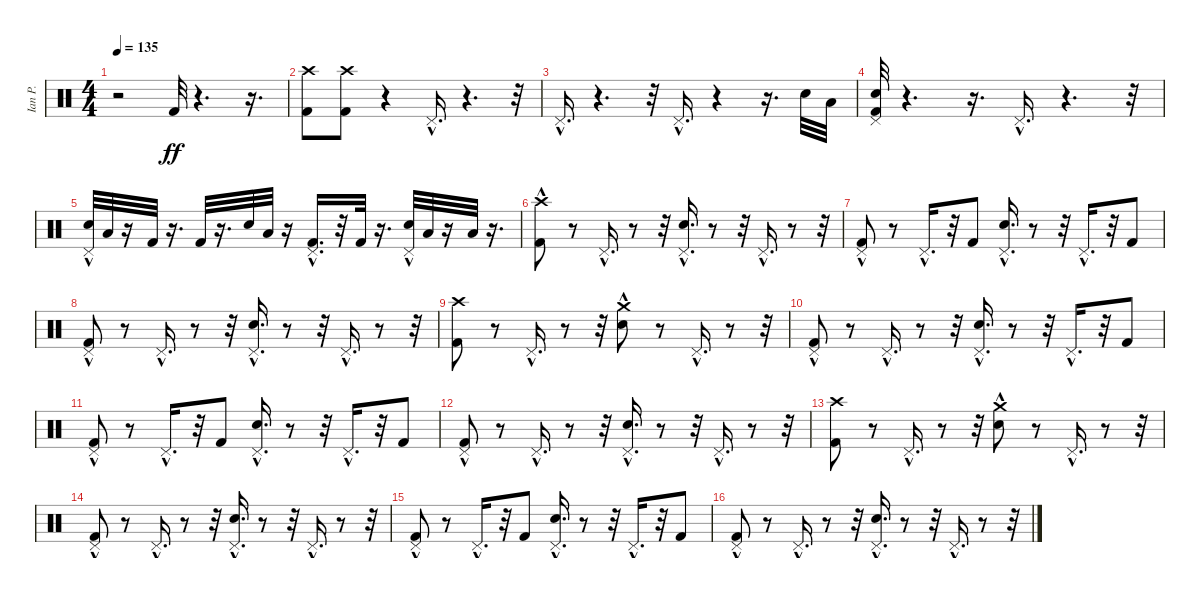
\track ("Ian P." "Ian P.") {instrument percussion}
\staff {score}
\articulation defaults
\ts (4 4)
\tempo 135
\clef neutral
\ks c
r.2{dy ff} "Kick (hit) 2".32 r.4{d} r.16{d} |
("Crash high (hit)" "Kick (hit) 2").8 ("Crash high (hit)" "Kick (hit) 2").8 r.4 "Pedal Hi-Hat (hit)"{hac}.16{d} r.4{d} r.32 |
"Pedal Hi-Hat (hit)"{hac}.16{d} r.4{d} r.32 "Pedal Hi-Hat (hit)"{hac}.16{d} r.4 r.16{d} "Snare (hit) 2".32 "Low Floor Tom (hit)".32 |
("Snare (hit) 2" "Pedal Hi-Hat (hit)" "Kick (hit) 2").32 r.4{d} r.16{d} "Pedal Hi-Hat (hit)"{hac}.16{d} r.4{d} r.32 |
("Snare (hit) 2" "Pedal Hi-Hat (hit)"{hac}).32 "Low Floor Tom (hit)".32 r.16 "Kick (hit) 2".32 r.16{d} "Kick (hit) 2".32 r.16{d} "Snare (hit) 2".32 "Low Floor Tom (hit)".32 r.16 ("Kick (hit) 2" "Pedal Hi-Hat (hit)"{hac}).16{d} r.32 "Kick (hit) 2".32 r.16{d} ("Snare (hit) 2" "Pedal Hi-Hat (hit)"{hac}).32 "Low Floor Tom (hit)".32 r.16 "Low Floor Tom (hit)".32 r.16{d} |
("Kick (hit) 2" "Crash high (hit)"{hac}).8 r.8 "Pedal Hi-Hat (hit)"{hac}.16{d} r.8 r.32 ("Snare (hit) 2"{hac} "Pedal Hi-Hat (hit)"{hac}).16{d} r.8 r.32 "Pedal Hi-Hat (hit)"{hac}.16{d} r.8 r.32 |
("Kick (hit) 2" "Pedal Hi-Hat (hit)"{hac}).8 r.8 "Pedal Hi-Hat (hit)"{hac}.16{d} r.32 "Kick (hit) 2".8 ("Snare (hit) 2"{hac} "Pedal Hi-Hat (hit)"{hac}).16{d} r.8 r.32 "Pedal Hi-Hat (hit)"{hac}.16{d} r.32 "Kick (hit) 2".8 |
("Kick (hit) 2" "Pedal Hi-Hat (hit)"{hac}).8 r.8 "Pedal Hi-Hat (hit)"{hac}.16{d} r.8 r.32 ("Snare (hit) 2"{hac} "Pedal Hi-Hat (hit)"{hac}).16{d} r.8 r.32 "Pedal Hi-Hat (hit)"{hac}.16{d} r.8 r.32 |
("Crash high (hit)" "Kick (hit) 2").8 r.8 "Pedal Hi-Hat (hit)"{hac}.16{d} r.8 r.32 ("Snare (hit) 2"{hac} "Crash medium (hit)").8 r.8 "Pedal Hi-Hat (hit)"{hac}.16{d} r.8 r.32 |
("Kick (hit) 2" "Pedal Hi-Hat (hit)"{hac}).8 r.8 "Pedal Hi-Hat (hit)"{hac}.16{d} r.8 r.32 ("Snare (hit) 2"{hac} "Pedal Hi-Hat (hit)"{hac}).16{d} r.8 r.32 "Pedal Hi-Hat (hit)"{hac}.16{d} r.32 "Kick (hit) 2".8 |
("Kick (hit) 2" "Pedal Hi-Hat (hit)"{hac}).8 r.8 "Pedal Hi-Hat (hit)"{hac}.16{d} r.32 "Kick (hit) 2".8 ("Snare (hit) 2"{hac} "Pedal Hi-Hat (hit)"{hac}).16{d} r.8 r.32 "Pedal Hi-Hat (hit)"{hac}.16{d} r.32 "Kick (hit) 2".8 |
("Kick (hit) 2" "Pedal Hi-Hat (hit)"{hac}).8 r.8 "Pedal Hi-Hat (hit)"{hac}.16{d} r.8 r.32 ("Snare (hit) 2"{hac} "Pedal Hi-Hat (hit)"{hac}).16{d} r.8 r.32 "Pedal Hi-Hat (hit)"{hac}.16{d} r.8 r.32 |
("Crash high (hit)" "Kick (hit) 2").8 r.8 "Pedal Hi-Hat (hit)"{hac}.16{d} r.8 r.32 ("Snare (hit) 2"{hac} "Crash medium (hit)").8 r.8 "Pedal Hi-Hat (hit)"{hac}.16{d} r.8 r.32 |
("Kick (hit) 2" "Pedal Hi-Hat (hit)"{hac}).8 r.8 "Pedal Hi-Hat (hit)"{hac}.16{d} r.8 r.32 ("Snare (hit) 2"{hac} "Pedal Hi-Hat (hit)"{hac}).16{d} r.8 r.32 "Pedal Hi-Hat (hit)"{hac}.16{d} r.8 r.32 |
("Kick (hit) 2" "Pedal Hi-Hat (hit)"{hac}).8 r.8 "Pedal Hi-Hat (hit)"{hac}.16{d} r.32 "Kick (hit) 2".8 ("Snare (hit) 2"{hac} "Pedal Hi-Hat (hit)"{hac}).16{d} r.8 r.32 "Pedal Hi-Hat (hit)"{hac}.16{d} r.32 "Kick (hit) 2".8 |
("Kick (hit) 2" "Pedal Hi-Hat (hit)"{hac}).8 r.8 "Pedal Hi-Hat (hit)"{hac}.16{d} r.8 r.32 ("Snare (hit) 2"{hac} "Pedal Hi-Hat (hit)"{hac}).16{d} r.8 r.32 "Pedal Hi-Hat (hit)"{hac}.16{d} r.8 r.32
